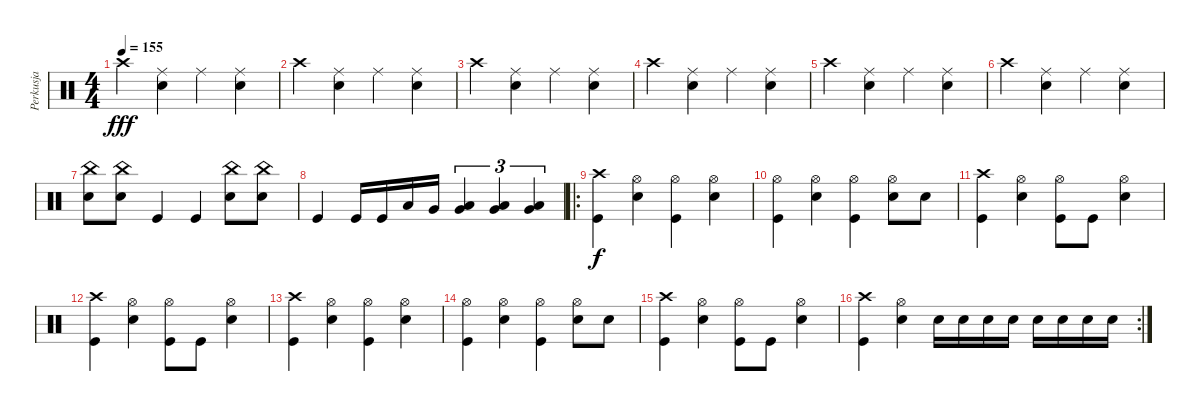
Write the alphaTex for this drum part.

\track ("Perkusja" "Perkusja") {instrument percussion}
\staff {score}
\articulation defaults
\ts (4 4)
\tempo 155
\clef neutral
\ks c "Crash high (hit)".4{dy fff}
("Ride (middle)" "Snare (hit) 2").4 "Ride (middle)".4 ("Ride (middle)" "Snare (hit) 2").4 |
"Crash high (hit)".4 ("Ride (middle)" "Snare (hit) 2").4 "Ride (middle)".4 ("Ride (middle)" "Snare (hit) 2").4 |
"Crash high (hit)".4 ("Ride (middle)" "Snare (hit) 2").4 "Ride (middle)".4 ("Ride (middle)" "Snare (hit) 2").4 |
"Crash high (hit)".4 ("Ride (middle)" "Snare (hit) 2").4 "Ride (middle)".4 ("Ride (middle)" "Snare (hit) 2").4 |
"Crash high (hit)".4 ("Ride (middle)" "Snare (hit) 2").4 "Ride (middle)".4 ("Ride (middle)" "Snare (hit) 2").4 |
"Crash high (hit)".4 ("Ride (middle)" "Snare (hit) 2").4 "Ride (middle)".4 ("Ride (middle)" "Snare (hit) 2").4 |
("China (hit)" "Snare (hit) 2").8 ("China (hit)" "Snare (hit) 2").8 "Kick (hit)".4 "Kick (hit)".4 ("China (hit)" "Snare (hit) 2").8 ("Snare (hit) 2" "China (hit)").8 |
"Kick (hit)".4 "Kick (hit)".16 "Kick (hit)".16 "Low Floor Tom (hit)".16 "Very Low Tom (hit)".16 ("Low Floor Tom (hit)" "Very Low Tom (hit)").4{tu (3 2)} ("Low Floor Tom (hit)" "Very Low Tom (hit)").4{tu (3 2)} ("Low Floor Tom (hit)" "Very Low Tom (hit)").4{tu (3 2)} |
\ro
("Crash high (hit)" "Kick (hit)").4{dy f} ("Hi-Hat (open)" "Snare (hit) 2").4 ("Kick (hit)" "Hi-Hat (open)").4 ("Snare (hit) 2" "Hi-Hat (open)").4 |
("Kick (hit)" "Hi-Hat (open)").4 ("Snare (hit) 2" "Hi-Hat (open)").4 ("Kick (hit)" "Hi-Hat (open)").4 ("Snare (hit) 2" "Hi-Hat (open)").8 "Snare (hit) 2".8 |
("Crash high (hit)" "Kick (hit)").4 ("Snare (hit) 2" "Hi-Hat (open)").4 ("Kick (hit)" "Hi-Hat (open)").8 "Kick (hit)".8 ("Hi-Hat (open)" "Snare (hit) 2").4 |
("Crash high (hit)" "Kick (hit)").4 ("Hi-Hat (open)" "Snare (hit) 2").4 ("Kick (hit)" "Hi-Hat (open)").8 "Kick (hit)".8 ("Hi-Hat (open)" "Snare (hit) 2").4 |
("Crash high (hit)" "Kick (hit)").4 ("Hi-Hat (open)" "Snare (hit) 2").4 ("Kick (hit)" "Hi-Hat (open)").4 ("Snare (hit) 2" "Hi-Hat (open)").4 |
("Kick (hit)" "Hi-Hat (open)").4 ("Snare (hit) 2" "Hi-Hat (open)").4 ("Kick (hit)" "Hi-Hat (open)").4 ("Snare (hit) 2" "Hi-Hat (open)").8 "Snare (hit) 2".8 |
("Crash high (hit)" "Kick (hit)").4 ("Snare (hit) 2" "Hi-Hat (open)").4 ("Kick (hit)" "Hi-Hat (open)").8 "Kick (hit)".8 ("Hi-Hat (open)" "Snare (hit) 2").4 |
\rc 2
("Crash high (hit)" "Kick (hit)").4 ("Hi-Hat (open)" "Snare (hit) 2").4 "Snare (hit) 2".16 "Snare (hit) 2".16 "Snare (hit) 2".16 "Snare (hit) 2".16 "Snare (hit) 2".16 "Snare (hit) 2".16 "Snare (hit) 2".16 "Snare (hit) 2".16
